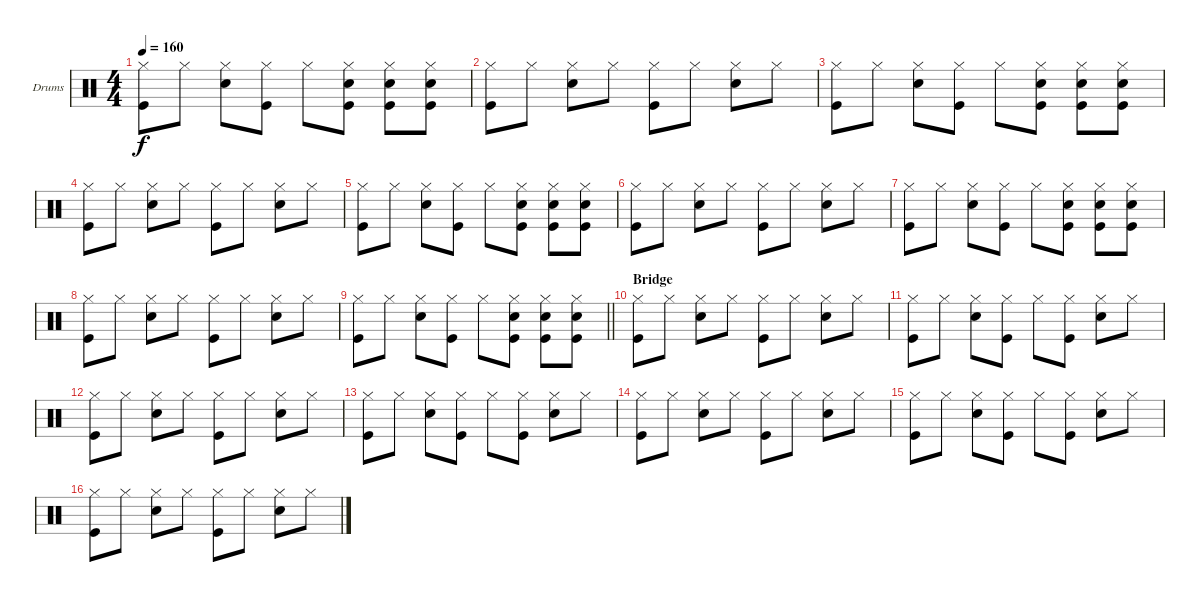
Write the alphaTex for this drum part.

\bracketExtendMode groupsimilarinstruments
\firstSystemTrackNameOrientation horizontal
\otherSystemsTrackNameOrientation horizontal
\track ("Fabrizio" "Drums") {instrument percussion}
\staff {score}
\articulation defaults
\ts (4 4)
\tempo 160
\clef neutral
\ks c
("Hi-Hat (closed)" "Kick (hit)").8{dy f} "Hi-Hat (closed)".8 ("Hi-Hat (closed)" "Snare (hit) 2").8 ("Hi-Hat (closed)" "Kick (hit)").8 "Hi-Hat (closed)".8 ("Hi-Hat (closed)" "Snare (hit) 2" "Kick (hit)").8 ("Hi-Hat (closed)" "Snare (hit) 2" "Kick (hit)").8 ("Hi-Hat (closed)" "Snare (hit) 2" "Kick (hit)").8 |
("Hi-Hat (closed)" "Kick (hit)").8 "Hi-Hat (closed)".8 ("Hi-Hat (closed)" "Snare (hit) 2").8 "Hi-Hat (closed)".8 ("Hi-Hat (closed)" "Kick (hit)").8 "Hi-Hat (closed)".8 ("Hi-Hat (closed)" "Snare (hit) 2").8 "Hi-Hat (closed)".8 |
("Hi-Hat (closed)" "Kick (hit)").8 "Hi-Hat (closed)".8 ("Hi-Hat (closed)" "Snare (hit) 2").8 ("Hi-Hat (closed)" "Kick (hit)").8 "Hi-Hat (closed)".8 ("Hi-Hat (closed)" "Snare (hit) 2" "Kick (hit)").8 ("Hi-Hat (closed)" "Snare (hit) 2" "Kick (hit)").8 ("Hi-Hat (closed)" "Snare (hit) 2" "Kick (hit)").8 |
("Hi-Hat (closed)" "Kick (hit)").8 "Hi-Hat (closed)".8 ("Hi-Hat (closed)" "Snare (hit) 2").8 "Hi-Hat (closed)".8 ("Hi-Hat (closed)" "Kick (hit)").8 "Hi-Hat (closed)".8 ("Hi-Hat (closed)" "Snare (hit) 2").8 "Hi-Hat (closed)".8 |
("Hi-Hat (closed)" "Kick (hit)").8 "Hi-Hat (closed)".8 ("Hi-Hat (closed)" "Snare (hit) 2").8 ("Hi-Hat (closed)" "Kick (hit)").8 "Hi-Hat (closed)".8 ("Hi-Hat (closed)" "Snare (hit) 2" "Kick (hit)").8 ("Hi-Hat (closed)" "Snare (hit) 2" "Kick (hit)").8 ("Hi-Hat (closed)" "Snare (hit) 2" "Kick (hit)").8 |
("Hi-Hat (closed)" "Kick (hit)").8 "Hi-Hat (closed)".8 ("Hi-Hat (closed)" "Snare (hit) 2").8 "Hi-Hat (closed)".8 ("Hi-Hat (closed)" "Kick (hit)").8 "Hi-Hat (closed)".8 ("Hi-Hat (closed)" "Snare (hit) 2").8 "Hi-Hat (closed)".8 |
("Hi-Hat (closed)" "Kick (hit)").8 "Hi-Hat (closed)".8 ("Hi-Hat (closed)" "Snare (hit) 2").8 ("Hi-Hat (closed)" "Kick (hit)").8 "Hi-Hat (closed)".8 ("Hi-Hat (closed)" "Snare (hit) 2" "Kick (hit)").8 ("Hi-Hat (closed)" "Snare (hit) 2" "Kick (hit)").8 ("Hi-Hat (closed)" "Snare (hit) 2" "Kick (hit)").8 |
("Hi-Hat (closed)" "Kick (hit)").8 "Hi-Hat (closed)".8 ("Hi-Hat (closed)" "Snare (hit) 2").8 "Hi-Hat (closed)".8 ("Hi-Hat (closed)" "Kick (hit)").8 "Hi-Hat (closed)".8 ("Hi-Hat (closed)" "Snare (hit) 2").8 "Hi-Hat (closed)".8 |
\barLineRight lightlight
("Hi-Hat (closed)" "Kick (hit)").8 "Hi-Hat (closed)".8 ("Hi-Hat (closed)" "Snare (hit) 2").8 ("Hi-Hat (closed)" "Kick (hit)").8 "Hi-Hat (closed)".8 ("Hi-Hat (closed)" "Snare (hit) 2" "Kick (hit)").8 ("Hi-Hat (closed)" "Snare (hit) 2" "Kick (hit)").8 ("Hi-Hat (closed)" "Snare (hit) 2" "Kick (hit)").8 |
\section ("" "Bridge")
("Hi-Hat (closed)" "Kick (hit)").8 "Hi-Hat (closed)".8 ("Hi-Hat (closed)" "Snare (hit) 2").8 "Hi-Hat (closed)".8 ("Hi-Hat (closed)" "Kick (hit)").8 "Hi-Hat (closed)".8 ("Hi-Hat (closed)" "Snare (hit) 2").8 "Hi-Hat (closed)".8 |
("Hi-Hat (closed)" "Kick (hit)").8 "Hi-Hat (closed)".8 ("Hi-Hat (closed)" "Snare (hit) 2").8 ("Hi-Hat (closed)" "Kick (hit)").8 "Hi-Hat (closed)".8 ("Hi-Hat (closed)" "Kick (hit)").8 ("Hi-Hat (closed)" "Snare (hit) 2").8 "Hi-Hat (closed)".8 |
("Hi-Hat (closed)" "Kick (hit)").8 "Hi-Hat (closed)".8 ("Hi-Hat (closed)" "Snare (hit) 2").8 "Hi-Hat (closed)".8 ("Hi-Hat (closed)" "Kick (hit)").8 "Hi-Hat (closed)".8 ("Hi-Hat (closed)" "Snare (hit) 2").8 "Hi-Hat (closed)".8 |
("Hi-Hat (closed)" "Kick (hit)").8 "Hi-Hat (closed)".8 ("Hi-Hat (closed)" "Snare (hit) 2").8 ("Hi-Hat (closed)" "Kick (hit)").8 "Hi-Hat (closed)".8 ("Hi-Hat (closed)" "Kick (hit)").8 ("Hi-Hat (closed)" "Snare (hit) 2").8 "Hi-Hat (closed)".8 |
("Hi-Hat (closed)" "Kick (hit)").8 "Hi-Hat (closed)".8 ("Hi-Hat (closed)" "Snare (hit) 2").8 "Hi-Hat (closed)".8 ("Hi-Hat (closed)" "Kick (hit)").8 "Hi-Hat (closed)".8 ("Hi-Hat (closed)" "Snare (hit) 2").8 "Hi-Hat (closed)".8 |
("Hi-Hat (closed)" "Kick (hit)").8 "Hi-Hat (closed)".8 ("Hi-Hat (closed)" "Snare (hit) 2").8 ("Hi-Hat (closed)" "Kick (hit)").8 "Hi-Hat (closed)".8 ("Hi-Hat (closed)" "Kick (hit)").8 ("Hi-Hat (closed)" "Snare (hit) 2").8 "Hi-Hat (closed)".8 |
("Hi-Hat (closed)" "Kick (hit)").8 "Hi-Hat (closed)".8 ("Hi-Hat (closed)" "Snare (hit) 2").8 "Hi-Hat (closed)".8 ("Hi-Hat (closed)" "Kick (hit)").8 "Hi-Hat (closed)".8 ("Hi-Hat (closed)" "Snare (hit) 2").8 "Hi-Hat (closed)".8
